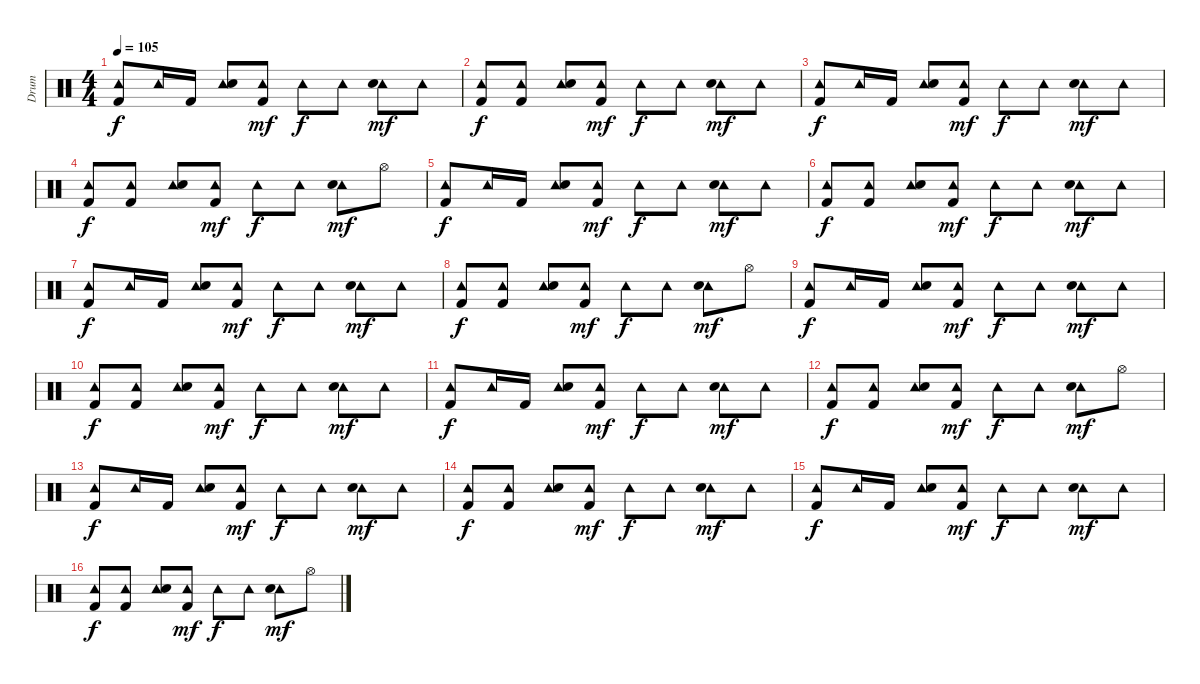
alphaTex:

\track ("Drum" "Drum") {instrument percussion}
\staff {score}
\articulation defaults
\ts (4 4)
\tempo 105
\clef neutral
\ks c
("Tambourine (hit)" "Kick (hit) 2").8{dy f} "Tambourine (hit)".16 "Kick (hit) 2".16 ("Tambourine (hit)" "Electric Snare (hit)").8 ("Tambourine (hit)" "Kick (hit) 2").8{dy mf} "Tambourine (hit)".8{dy f} "Tambourine (hit)".8 ("Tambourine (hit)" "Electric Snare (hit)").8{dy mf} "Tambourine (hit)".8 |
("Tambourine (hit)" "Kick (hit) 2").8{dy f} ("Tambourine (hit)" "Kick (hit) 2").8 ("Tambourine (hit)" "Electric Snare (hit)").8 ("Tambourine (hit)" "Kick (hit) 2").8{dy mf} "Tambourine (hit)".8{dy f} "Tambourine (hit)".8 ("Tambourine (hit)" "Electric Snare (hit)").8{dy mf} "Tambourine (hit)".8 |
("Tambourine (hit)" "Kick (hit) 2").8{dy f} "Tambourine (hit)".16 "Kick (hit) 2".16 ("Tambourine (hit)" "Electric Snare (hit)").8 ("Tambourine (hit)" "Kick (hit) 2").8{dy mf} "Tambourine (hit)".8{dy f} "Tambourine (hit)".8 ("Tambourine (hit)" "Electric Snare (hit)").8{dy mf} "Tambourine (hit)".8 |
("Tambourine (hit)" "Kick (hit) 2").8{dy f} ("Tambourine (hit)" "Kick (hit) 2").8 ("Tambourine (hit)" "Electric Snare (hit)").8 ("Tambourine (hit)" "Kick (hit) 2").8{dy mf} "Tambourine (hit)".8{dy f} "Tambourine (hit)".8 ("Tambourine (hit)" "Electric Snare (hit)").8{dy mf} "Hi-Hat (open)".8 |
("Tambourine (hit)" "Kick (hit) 2").8{dy f} "Tambourine (hit)".16 "Kick (hit) 2".16 ("Tambourine (hit)" "Electric Snare (hit)").8 ("Tambourine (hit)" "Kick (hit) 2").8{dy mf} "Tambourine (hit)".8{dy f} "Tambourine (hit)".8 ("Tambourine (hit)" "Electric Snare (hit)").8{dy mf} "Tambourine (hit)".8 |
("Tambourine (hit)" "Kick (hit) 2").8{dy f} ("Tambourine (hit)" "Kick (hit) 2").8 ("Tambourine (hit)" "Electric Snare (hit)").8 ("Tambourine (hit)" "Kick (hit) 2").8{dy mf} "Tambourine (hit)".8{dy f} "Tambourine (hit)".8 ("Tambourine (hit)" "Electric Snare (hit)").8{dy mf} "Tambourine (hit)".8 |
("Tambourine (hit)" "Kick (hit) 2").8{dy f} "Tambourine (hit)".16 "Kick (hit) 2".16 ("Tambourine (hit)" "Electric Snare (hit)").8 ("Tambourine (hit)" "Kick (hit) 2").8{dy mf} "Tambourine (hit)".8{dy f} "Tambourine (hit)".8 ("Tambourine (hit)" "Electric Snare (hit)").8{dy mf} "Tambourine (hit)".8 |
("Tambourine (hit)" "Kick (hit) 2").8{dy f} ("Tambourine (hit)" "Kick (hit) 2").8 ("Tambourine (hit)" "Electric Snare (hit)").8 ("Tambourine (hit)" "Kick (hit) 2").8{dy mf} "Tambourine (hit)".8{dy f} "Tambourine (hit)".8 ("Tambourine (hit)" "Electric Snare (hit)").8{dy mf} "Hi-Hat (open)".8 |
("Tambourine (hit)" "Kick (hit) 2").8{dy f} "Tambourine (hit)".16 "Kick (hit) 2".16 ("Tambourine (hit)" "Electric Snare (hit)").8 ("Tambourine (hit)" "Kick (hit) 2").8{dy mf} "Tambourine (hit)".8{dy f} "Tambourine (hit)".8 ("Tambourine (hit)" "Electric Snare (hit)").8{dy mf} "Tambourine (hit)".8 |
("Tambourine (hit)" "Kick (hit) 2").8{dy f} ("Tambourine (hit)" "Kick (hit) 2").8 ("Tambourine (hit)" "Electric Snare (hit)").8 ("Tambourine (hit)" "Kick (hit) 2").8{dy mf} "Tambourine (hit)".8{dy f} "Tambourine (hit)".8 ("Tambourine (hit)" "Electric Snare (hit)").8{dy mf} "Tambourine (hit)".8 |
("Tambourine (hit)" "Kick (hit) 2").8{dy f} "Tambourine (hit)".16 "Kick (hit) 2".16 ("Tambourine (hit)" "Electric Snare (hit)").8 ("Tambourine (hit)" "Kick (hit) 2").8{dy mf} "Tambourine (hit)".8{dy f} "Tambourine (hit)".8 ("Tambourine (hit)" "Electric Snare (hit)").8{dy mf} "Tambourine (hit)".8 |
("Tambourine (hit)" "Kick (hit) 2").8{dy f} ("Tambourine (hit)" "Kick (hit) 2").8 ("Tambourine (hit)" "Electric Snare (hit)").8 ("Tambourine (hit)" "Kick (hit) 2").8{dy mf} "Tambourine (hit)".8{dy f} "Tambourine (hit)".8 ("Tambourine (hit)" "Electric Snare (hit)").8{dy mf} "Hi-Hat (open)".8 |
("Tambourine (hit)" "Kick (hit) 2").8{dy f} "Tambourine (hit)".16 "Kick (hit) 2".16 ("Tambourine (hit)" "Electric Snare (hit)").8 ("Tambourine (hit)" "Kick (hit) 2").8{dy mf} "Tambourine (hit)".8{dy f} "Tambourine (hit)".8 ("Tambourine (hit)" "Electric Snare (hit)").8{dy mf} "Tambourine (hit)".8 |
("Tambourine (hit)" "Kick (hit) 2").8{dy f} ("Tambourine (hit)" "Kick (hit) 2").8 ("Tambourine (hit)" "Electric Snare (hit)").8 ("Tambourine (hit)" "Kick (hit) 2").8{dy mf} "Tambourine (hit)".8{dy f} "Tambourine (hit)".8 ("Tambourine (hit)" "Electric Snare (hit)").8{dy mf} "Tambourine (hit)".8 |
("Tambourine (hit)" "Kick (hit) 2").8{dy f} "Tambourine (hit)".16 "Kick (hit) 2".16 ("Tambourine (hit)" "Electric Snare (hit)").8 ("Tambourine (hit)" "Kick (hit) 2").8{dy mf} "Tambourine (hit)".8{dy f} "Tambourine (hit)".8 ("Tambourine (hit)" "Electric Snare (hit)").8{dy mf} "Tambourine (hit)".8 |
("Tambourine (hit)" "Kick (hit) 2").8{dy f} ("Tambourine (hit)" "Kick (hit) 2").8 ("Tambourine (hit)" "Electric Snare (hit)").8 ("Tambourine (hit)" "Kick (hit) 2").8{dy mf} "Tambourine (hit)".8{dy f} "Tambourine (hit)".8 ("Tambourine (hit)" "Electric Snare (hit)").8{dy mf} "Hi-Hat (open)".8
